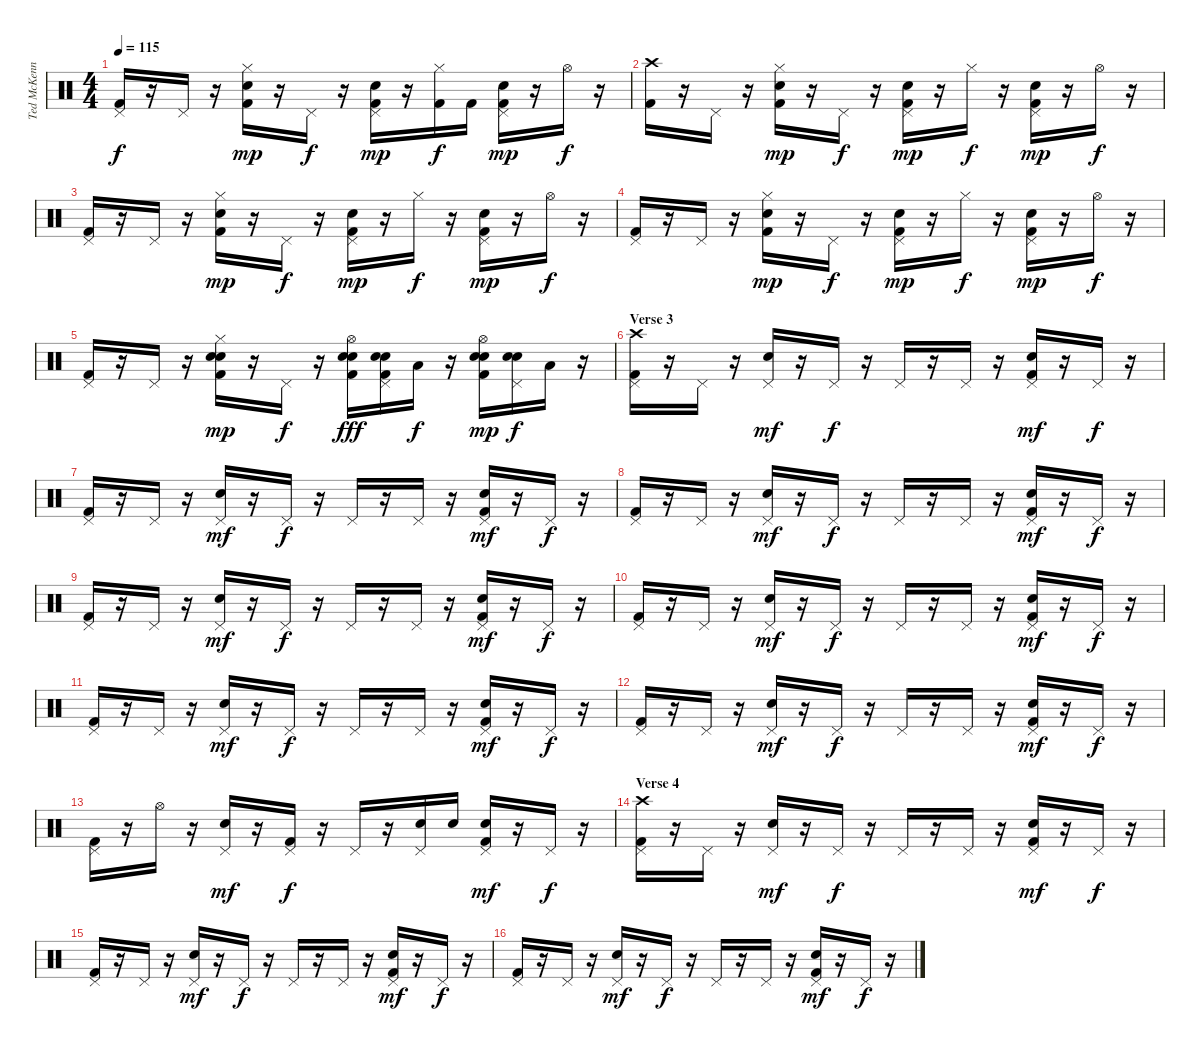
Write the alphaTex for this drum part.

\track ("Ted McKenna" "Ted McKenn") {instrument percussion}
\staff {score}
\articulation defaults
\ts (4 4)
\tempo 115
\clef neutral
\ks c
("Pedal Hi-Hat (hit)" "Kick (hit) 2").16{dy f} r.16 "Pedal Hi-Hat (hit)".16 r.16 ("Electric Snare (hit)" "Hi-Hat (closed)" "Kick (hit) 2").16{dy mp} r.16 "Pedal Hi-Hat (hit)".16{dy f} r.16 ("Electric Snare (hit)" "Pedal Hi-Hat (hit)" "Kick (hit) 2").16{dy mp} r.16 ("Hi-Hat (closed)" "Kick (hit) 2").16{dy f} "Kick (hit) 2".16 ("Electric Snare (hit)" "Pedal Hi-Hat (hit)" "Kick (hit) 2").16{dy mp} r.16 "Hi-Hat (open)".16{dy f} r.16 |
("Crash high (hit)" "Kick (hit) 2").16 r.16 "Pedal Hi-Hat (hit)".16 r.16 ("Electric Snare (hit)" "Hi-Hat (closed)" "Kick (hit) 2").16{dy mp} r.16 "Pedal Hi-Hat (hit)".16{dy f} r.16 ("Electric Snare (hit)" "Pedal Hi-Hat (hit)" "Kick (hit) 2").16{dy mp} r.16 "Hi-Hat (closed)".16{dy f} r.16 ("Electric Snare (hit)" "Pedal Hi-Hat (hit)" "Kick (hit) 2").16{dy mp} r.16 "Hi-Hat (open)".16{dy f} r.16 |
("Pedal Hi-Hat (hit)" "Kick (hit) 2").16 r.16 "Pedal Hi-Hat (hit)".16 r.16 ("Electric Snare (hit)" "Hi-Hat (closed)" "Kick (hit) 2").16{dy mp} r.16 "Pedal Hi-Hat (hit)".16{dy f} r.16 ("Electric Snare (hit)" "Pedal Hi-Hat (hit)" "Kick (hit) 2").16{dy mp} r.16 "Hi-Hat (closed)".16{dy f} r.16 ("Electric Snare (hit)" "Pedal Hi-Hat (hit)" "Kick (hit) 2").16{dy mp} r.16 "Hi-Hat (open)".16{dy f} r.16 |
("Pedal Hi-Hat (hit)" "Kick (hit) 2").16 r.16 "Pedal Hi-Hat (hit)".16 r.16 ("Electric Snare (hit)" "Hi-Hat (closed)" "Kick (hit) 2").16{dy mp} r.16 "Pedal Hi-Hat (hit)".16{dy f} r.16 ("Electric Snare (hit)" "Pedal Hi-Hat (hit)" "Kick (hit) 2").16{dy mp} r.16 "Hi-Hat (closed)".16{dy f} r.16 ("Electric Snare (hit)" "Pedal Hi-Hat (hit)" "Kick (hit) 2").16{dy mp} r.16 "Hi-Hat (open)".16{dy f} r.16 |
("Pedal Hi-Hat (hit)" "Kick (hit) 2").16 r.16 "Pedal Hi-Hat (hit)".16 r.16 ("Electric Snare (hit)" "Electric Snare (hit)" "Hi-Hat (closed)" "Kick (hit) 2").16{dy mp} r.16 "Pedal Hi-Hat (hit)".16{dy f} r.16 ("Electric Snare (hit)" "Electric Snare (hit)" "Hi-Hat (open)" "Kick (hit) 2").16{dy fff} ("Electric Snare (hit)" "Electric Snare (hit)" "Pedal Hi-Hat (hit)" "Kick (hit) 2").16 "Low Tom (hit)".16{dy f} r.16 ("Electric Snare (hit)" "Electric Snare (hit)" "Hi-Hat (open)" "Kick (hit) 2").16{dy mp} ("Electric Snare (hit)" "Electric Snare (hit)" "Pedal Hi-Hat (hit)").16{dy f} "Low Tom (hit)".16 r.16 |
\section ("" "Verse 3")
("Crash high (hit)" "Pedal Hi-Hat (hit)" "Kick (hit) 2").16 r.16 "Pedal Hi-Hat (hit)".16 r.16 ("Electric Snare (hit)" "Pedal Hi-Hat (hit)").16{dy mf} r.16 "Pedal Hi-Hat (hit)".16{dy f} r.16 "Pedal Hi-Hat (hit)".16 r.16 "Pedal Hi-Hat (hit)".16 r.16 ("Electric Snare (hit)" "Pedal Hi-Hat (hit)" "Kick (hit) 2").16{dy mf} r.16 "Pedal Hi-Hat (hit)".16{dy f} r.16 |
("Pedal Hi-Hat (hit)" "Kick (hit) 2").16 r.16 "Pedal Hi-Hat (hit)".16 r.16 ("Electric Snare (hit)" "Pedal Hi-Hat (hit)").16{dy mf} r.16 "Pedal Hi-Hat (hit)".16{dy f} r.16 "Pedal Hi-Hat (hit)".16 r.16 "Pedal Hi-Hat (hit)".16 r.16 ("Electric Snare (hit)" "Pedal Hi-Hat (hit)" "Kick (hit) 2").16{dy mf} r.16 "Pedal Hi-Hat (hit)".16{dy f} r.16 |
("Pedal Hi-Hat (hit)" "Kick (hit) 2").16 r.16 "Pedal Hi-Hat (hit)".16 r.16 ("Electric Snare (hit)" "Pedal Hi-Hat (hit)").16{dy mf} r.16 "Pedal Hi-Hat (hit)".16{dy f} r.16 "Pedal Hi-Hat (hit)".16 r.16 "Pedal Hi-Hat (hit)".16 r.16 ("Electric Snare (hit)" "Pedal Hi-Hat (hit)" "Kick (hit) 2").16{dy mf} r.16 "Pedal Hi-Hat (hit)".16{dy f} r.16 |
("Pedal Hi-Hat (hit)" "Kick (hit) 2").16 r.16 "Pedal Hi-Hat (hit)".16 r.16 ("Electric Snare (hit)" "Pedal Hi-Hat (hit)").16{dy mf} r.16 "Pedal Hi-Hat (hit)".16{dy f} r.16 "Pedal Hi-Hat (hit)".16 r.16 "Pedal Hi-Hat (hit)".16 r.16 ("Electric Snare (hit)" "Pedal Hi-Hat (hit)" "Kick (hit) 2").16{dy mf} r.16 "Pedal Hi-Hat (hit)".16{dy f} r.16 |
("Pedal Hi-Hat (hit)" "Kick (hit) 2").16 r.16 "Pedal Hi-Hat (hit)".16 r.16 ("Electric Snare (hit)" "Pedal Hi-Hat (hit)").16{dy mf} r.16 "Pedal Hi-Hat (hit)".16{dy f} r.16 "Pedal Hi-Hat (hit)".16 r.16 "Pedal Hi-Hat (hit)".16 r.16 ("Electric Snare (hit)" "Pedal Hi-Hat (hit)" "Kick (hit) 2").16{dy mf} r.16 "Pedal Hi-Hat (hit)".16{dy f} r.16 |
("Pedal Hi-Hat (hit)" "Kick (hit) 2").16 r.16 "Pedal Hi-Hat (hit)".16 r.16 ("Electric Snare (hit)" "Pedal Hi-Hat (hit)").16{dy mf} r.16 "Pedal Hi-Hat (hit)".16{dy f} r.16 "Pedal Hi-Hat (hit)".16 r.16 "Pedal Hi-Hat (hit)".16 r.16 ("Electric Snare (hit)" "Pedal Hi-Hat (hit)" "Kick (hit) 2").16{dy mf} r.16 "Pedal Hi-Hat (hit)".16{dy f} r.16 |
("Pedal Hi-Hat (hit)" "Kick (hit) 2").16 r.16 "Pedal Hi-Hat (hit)".16 r.16 ("Electric Snare (hit)" "Pedal Hi-Hat (hit)").16{dy mf} r.16 "Pedal Hi-Hat (hit)".16{dy f} r.16 "Pedal Hi-Hat (hit)".16 r.16 "Pedal Hi-Hat (hit)".16 r.16 ("Electric Snare (hit)" "Pedal Hi-Hat (hit)" "Kick (hit) 2").16{dy mf} r.16 "Pedal Hi-Hat (hit)".16{dy f} r.16 |
("Pedal Hi-Hat (hit)" "Kick (hit) 2").16 r.16 "Hi-Hat (open)".16 r.16 ("Electric Snare (hit)" "Pedal Hi-Hat (hit)").16{dy mf} r.16 ("Pedal Hi-Hat (hit)" "Kick (hit) 2").16{dy f} r.16 "Pedal Hi-Hat (hit)".16 r.16 ("Electric Snare (hit)" "Pedal Hi-Hat (hit)").16 "Electric Snare (hit)".16 ("Electric Snare (hit)" "Pedal Hi-Hat (hit)" "Kick (hit) 2").16{dy mf} r.16 "Pedal Hi-Hat (hit)".16{dy f} r.16 |
\section ("" "Verse 4")
("Crash high (hit)" "Pedal Hi-Hat (hit)" "Kick (hit) 2").16 r.16 "Pedal Hi-Hat (hit)".16 r.16 ("Electric Snare (hit)" "Pedal Hi-Hat (hit)").16{dy mf} r.16 "Pedal Hi-Hat (hit)".16{dy f} r.16 "Pedal Hi-Hat (hit)".16 r.16 "Pedal Hi-Hat (hit)".16 r.16 ("Electric Snare (hit)" "Pedal Hi-Hat (hit)" "Kick (hit) 2").16{dy mf} r.16 "Pedal Hi-Hat (hit)".16{dy f} r.16 |
("Pedal Hi-Hat (hit)" "Kick (hit) 2").16 r.16 "Pedal Hi-Hat (hit)".16 r.16 ("Electric Snare (hit)" "Pedal Hi-Hat (hit)").16{dy mf} r.16 "Pedal Hi-Hat (hit)".16{dy f} r.16 "Pedal Hi-Hat (hit)".16 r.16 "Pedal Hi-Hat (hit)".16 r.16 ("Electric Snare (hit)" "Pedal Hi-Hat (hit)" "Kick (hit) 2").16{dy mf} r.16 "Pedal Hi-Hat (hit)".16{dy f} r.16 |
("Pedal Hi-Hat (hit)" "Kick (hit) 2").16 r.16 "Pedal Hi-Hat (hit)".16 r.16 ("Electric Snare (hit)" "Pedal Hi-Hat (hit)").16{dy mf} r.16 "Pedal Hi-Hat (hit)".16{dy f} r.16 "Pedal Hi-Hat (hit)".16 r.16 "Pedal Hi-Hat (hit)".16 r.16 ("Electric Snare (hit)" "Pedal Hi-Hat (hit)" "Kick (hit) 2").16{dy mf} r.16 "Pedal Hi-Hat (hit)".16{dy f} r.16
